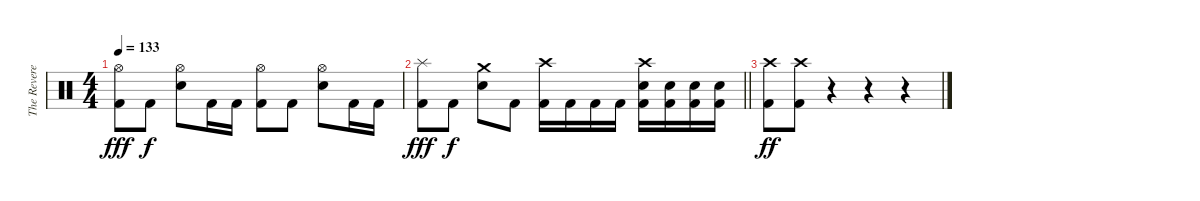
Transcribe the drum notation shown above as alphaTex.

\track ("The Reverend (R.I.P.) [Drums]" "The Revere") {instrument percussion}
\staff {score}
\articulation defaults
\ts (4 4)
\tempo 133
\clef neutral
\ks c
("Hi-Hat (open)" "Kick (hit) 2").8{dy fff} "Kick (hit) 2".8{dy f} ("Hi-Hat (open)" "Electric Snare (hit)").8 "Kick (hit) 2".16 "Kick (hit) 2".16 ("Hi-Hat (open)" "Kick (hit) 2").8 "Kick (hit) 2".8 ("Hi-Hat (open)" "Electric Snare (hit)").8 "Kick (hit) 2".16 "Kick (hit) 2".16 |
\barLineRight lightlight
("Splash (hit)" "Kick (hit) 2").8{dy fff} "Kick (hit) 2".8{dy f} ("Crash medium (hit)" "Electric Snare (hit)").8 "Kick (hit) 2".8 ("Crash high (hit)" "Kick (hit) 2").16 "Kick (hit) 2".16 "Kick (hit) 2".16 "Kick (hit) 2".16 ("Crash high (hit)" "Electric Snare (hit)" "Kick (hit) 2").16 ("Electric Snare (hit)" "Kick (hit) 2").16 ("Electric Snare (hit)" "Kick (hit) 2").16 ("Electric Snare (hit)" "Kick (hit) 2").16 |
("Crash high (hit)" "Kick (hit) 2").8{dy ff} ("Crash high (hit)" "Kick (hit) 2").8 r.4 r.4 r.4
